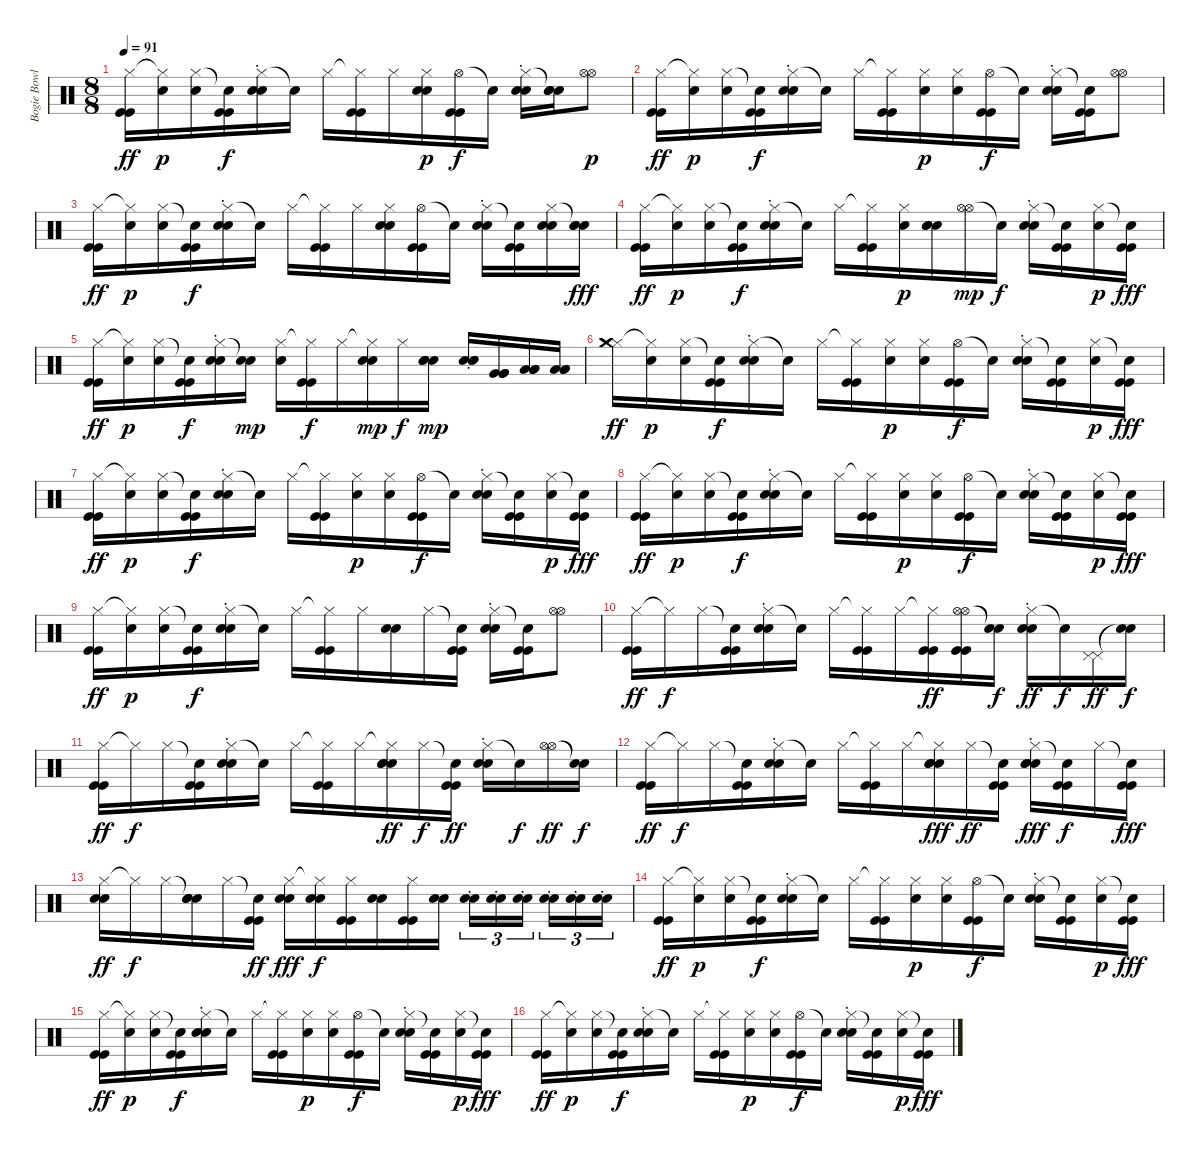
\track ("Bogie Bowles Drums" "Bogie Bowl") {instrument percussion}
\staff {score}
\articulation defaults
\ts (8 8)
\tempo 91
\clef neutral
\ks c
("Hi-Hat (closed)" "Kick (hit)" "Kick (hit)").16{dy ff} ("Hi-Hat (closed)"{t} "Snare (hit) 2").16{dy p} ("Hi-Hat (closed)" "Snare (hit) 2").16 ("Snare (hit)"{t} "Kick (hit)" "Kick (hit)").16{dy f} ("Hi-Hat (closed)" "Snare (hit) 2"{st} "Snare (hit) 2").16 "Snare (hit)"{t}.16 "Hi-Hat (closed)".16 ("Hi-Hat (closed)"{t} "Kick (hit)" "Kick (hit)").16 "Hi-Hat (closed)".16 ("Hi-Hat (closed)" "Snare (hit) 2" "Snare (hit) 2").16{dy p} ("Hi-Hat (open)" "Kick (hit)" "Kick (hit)").16{dy f} "Snare (hit)"{t}.16 ("Hi-Hat (closed)" "Snare (hit) 2"{st} "Snare (hit) 2").16 ("Snare (hit)"{t} "Snare (hit) 2" "Snare (hit) 2").16 ("Hi-Hat (open)" "Hi-Hat (open)").8{dy p} |
("Hi-Hat (closed)" "Kick (hit)" "Kick (hit)").16{dy ff} ("Hi-Hat (closed)"{t} "Snare (hit) 2").16{dy p} ("Hi-Hat (closed)" "Snare (hit) 2").16 ("Snare (hit)"{t} "Kick (hit)" "Kick (hit)").16{dy f} ("Hi-Hat (closed)" "Snare (hit) 2"{st} "Snare (hit) 2").16 "Snare (hit)"{t}.16 "Hi-Hat (closed)".16 ("Hi-Hat (closed)"{t} "Kick (hit)" "Kick (hit)").16 ("Hi-Hat (closed)" "Snare (hit) 2").16{dy p} ("Hi-Hat (closed)" "Snare (hit) 2").16 ("Hi-Hat (open)" "Kick (hit)" "Kick (hit)").16{dy f} "Snare (hit)"{t}.16 ("Hi-Hat (closed)" "Snare (hit) 2"{st} "Snare (hit) 2").16 ("Snare (hit)"{t} "Kick (hit)" "Kick (hit)").16 ("Hi-Hat (open)" "Hi-Hat (open)").8 |
("Hi-Hat (closed)" "Kick (hit)" "Kick (hit)").16{dy ff} ("Hi-Hat (closed)"{t} "Snare (hit) 2").16{dy p} ("Hi-Hat (closed)" "Snare (hit) 2").16 ("Snare (hit)"{t} "Kick (hit)" "Kick (hit)").16{dy f} ("Hi-Hat (closed)" "Snare (hit) 2"{st} "Snare (hit) 2").16 "Snare (hit)"{t}.16 "Hi-Hat (closed)".16 ("Hi-Hat (closed)"{t} "Kick (hit)" "Kick (hit)").16 "Hi-Hat (closed)".16 ("Hi-Hat (closed)" "Snare (hit) 2" "Snare (hit) 2").16 ("Hi-Hat (open)" "Kick (hit)" "Kick (hit)").16 "Snare (hit)"{t}.16 ("Hi-Hat (closed)" "Snare (hit) 2"{st} "Snare (hit) 2").16 ("Snare (hit)"{t} "Kick (hit)" "Kick (hit)").16 ("Hi-Hat (closed)" "Snare (hit) 2" "Snare (hit) 2").16 ("Snare (hit)"{t} "Snare (hit) 2" "Snare (hit) 2").16{dy fff} |
("Hi-Hat (closed)" "Kick (hit)" "Kick (hit)").16{dy ff} ("Hi-Hat (closed)"{t} "Snare (hit) 2").16{dy p} ("Hi-Hat (closed)" "Snare (hit) 2").16 ("Snare (hit)"{t} "Kick (hit)" "Kick (hit)").16{dy f} ("Hi-Hat (closed)" "Snare (hit) 2"{st} "Snare (hit) 2").16 "Snare (hit)"{t}.16 "Hi-Hat (closed)".16 ("Hi-Hat (closed)"{t} "Kick (hit)" "Kick (hit)").16 ("Hi-Hat (closed)" "Snare (hit) 2").16{dy p} ("Snare (hit) 2" "Snare (hit) 2" "Snare (hit) 2").16 ("Hi-Hat (open)" "Hi-Hat (open)").16{dy mp} "Snare (hit)"{t}.16{dy f} ("Hi-Hat (closed)" "Snare (hit) 2"{st} "Snare (hit) 2").16 ("Snare (hit)"{t} "Kick (hit)" "Kick (hit)").16 ("Hi-Hat (closed)" "Snare (hit) 2").16{dy p} ("Snare (hit)"{t} "Kick (hit)" "Kick (hit)").16{dy fff} |
("Hi-Hat (closed)" "Kick (hit)" "Kick (hit)").16{dy ff} ("Hi-Hat (closed)"{t} "Snare (hit) 2").16{dy p} ("Hi-Hat (closed)" "Snare (hit) 2").16 ("Snare (hit)"{t} "Kick (hit)" "Kick (hit)").16{dy f} ("Hi-Hat (closed)" "Snare (hit) 2"{st} "Snare (hit) 2").16 ("Snare (hit)"{t} "Snare (hit) 2").16{dy mp} ("Hi-Hat (closed)" "Snare (hit) 2").16 ("Hi-Hat (closed)"{t} "Kick (hit)" "Kick (hit)").16{dy f} "Hi-Hat (closed)".16 ("Hi-Hat (closed)"{t} "Snare (hit) 2" "Snare (hit) 2").16{dy mp} "Hi-Hat (closed)".16{dy f} ("Snare (hit) 2" "Snare (hit) 2" "Snare (hit) 2").16{dy mp} ("Snare (hit) 2"{st} "Snare (hit) 2" "Snare (hit) 2").16 ("Very Low Tom (hit)" "Very Low Tom (hit)" "Very Low Tom (hit)").16 ("Low Floor Tom (hit)" "Low Floor Tom (hit)" "Low Floor Tom (hit)").16 ("Low Floor Tom (hit)" "Low Floor Tom (hit)" "Low Floor Tom (hit)").16 |
("Hi-Hat (closed)" "Crash medium (hit)" "Crash medium (hit)").16{dy ff} ("Hi-Hat (closed)"{t} "Snare (hit) 2").16{dy p} ("Hi-Hat (closed)" "Snare (hit) 2").16 ("Snare (hit)"{t} "Kick (hit)" "Kick (hit)").16{dy f} ("Hi-Hat (closed)" "Snare (hit) 2"{st} "Snare (hit) 2").16 "Snare (hit)"{t}.16 "Hi-Hat (closed)".16 ("Hi-Hat (closed)"{t} "Kick (hit)" "Kick (hit)").16 ("Hi-Hat (closed)" "Snare (hit) 2").16{dy p} ("Hi-Hat (closed)" "Snare (hit) 2").16 ("Hi-Hat (open)" "Kick (hit)" "Kick (hit)").16{dy f} "Snare (hit)"{t}.16 ("Hi-Hat (closed)" "Snare (hit) 2"{st} "Snare (hit) 2").16 ("Snare (hit)"{t} "Kick (hit)" "Kick (hit)").16 ("Hi-Hat (closed)" "Snare (hit) 2").16{dy p} ("Snare (hit)"{t} "Kick (hit)" "Kick (hit)").16{dy fff} |
("Hi-Hat (closed)" "Kick (hit)" "Kick (hit)").16{dy ff} ("Hi-Hat (closed)"{t} "Snare (hit) 2").16{dy p} ("Hi-Hat (closed)" "Snare (hit) 2").16 ("Snare (hit)"{t} "Kick (hit)" "Kick (hit)").16{dy f} ("Hi-Hat (closed)" "Snare (hit) 2"{st} "Snare (hit) 2").16 "Snare (hit)"{t}.16 "Hi-Hat (closed)".16 ("Hi-Hat (closed)"{t} "Kick (hit)" "Kick (hit)").16 ("Hi-Hat (closed)" "Snare (hit) 2").16{dy p} ("Hi-Hat (closed)" "Snare (hit) 2").16 ("Hi-Hat (open)" "Kick (hit)" "Kick (hit)").16{dy f} "Snare (hit)"{t}.16 ("Hi-Hat (closed)" "Snare (hit) 2"{st} "Snare (hit) 2").16 ("Snare (hit)"{t} "Kick (hit)" "Kick (hit)").16 ("Hi-Hat (closed)" "Snare (hit) 2").16{dy p} ("Snare (hit)"{t} "Kick (hit)" "Kick (hit)").16{dy fff} |
("Hi-Hat (closed)" "Kick (hit)" "Kick (hit)").16{dy ff} ("Hi-Hat (closed)"{t} "Snare (hit) 2").16{dy p} ("Hi-Hat (closed)" "Snare (hit) 2").16 ("Snare (hit)"{t} "Kick (hit)" "Kick (hit)").16{dy f} ("Hi-Hat (closed)" "Snare (hit) 2"{st} "Snare (hit) 2").16 "Snare (hit)"{t}.16 "Hi-Hat (closed)".16 ("Hi-Hat (closed)"{t} "Kick (hit)" "Kick (hit)").16 ("Hi-Hat (closed)" "Snare (hit) 2").16{dy p} ("Hi-Hat (closed)" "Snare (hit) 2").16 ("Hi-Hat (open)" "Kick (hit)" "Kick (hit)").16{dy f} "Snare (hit)"{t}.16 ("Hi-Hat (closed)" "Snare (hit) 2"{st} "Snare (hit) 2").16 ("Snare (hit)"{t} "Kick (hit)" "Kick (hit)").16 ("Hi-Hat (closed)" "Snare (hit) 2").16{dy p} ("Snare (hit)"{t} "Kick (hit)" "Kick (hit)").16{dy fff} |
("Hi-Hat (closed)" "Kick (hit)" "Kick (hit)").16{dy ff} ("Hi-Hat (closed)"{t} "Snare (hit) 2").16{dy p} ("Hi-Hat (closed)" "Snare (hit) 2").16 ("Snare (hit)"{t} "Kick (hit)" "Kick (hit)").16{dy f} ("Hi-Hat (closed)" "Snare (hit) 2"{st} "Snare (hit) 2").16 "Snare (hit)"{t}.16 "Hi-Hat (closed)".16 ("Hi-Hat (closed)"{t} "Kick (hit)" "Kick (hit)").16 "Hi-Hat (closed)".16 ("Snare (hit) 2" "Snare (hit) 2").16 "Hi-Hat (closed)".16 ("Snare (hit)"{t} "Kick (hit)" "Kick (hit)").16 ("Hi-Hat (closed)" "Snare (hit) 2"{st} "Snare (hit) 2").16 ("Snare (hit)"{t} "Kick (hit)" "Kick (hit)").16 ("Hi-Hat (open)" "Hi-Hat (open)").8 |
("Hi-Hat (closed)" "Kick (hit)" "Kick (hit)").16{dy ff} "Hi-Hat (closed)"{t}.16{dy f} "Hi-Hat (closed)".16 ("Snare (hit)"{t} "Kick (hit)" "Kick (hit)").16 ("Hi-Hat (closed)" "Snare (hit) 2"{st} "Snare (hit) 2").16 "Snare (hit)"{t}.16 "Hi-Hat (closed)".16 ("Hi-Hat (closed)"{t} "Kick (hit)" "Kick (hit)").16 "Hi-Hat (closed)".16 ("Hi-Hat (closed)"{t} "Kick (hit)" "Kick (hit)").16{dy ff} ("Hi-Hat (open)" "Hi-Hat (open)" "Kick (hit)" "Kick (hit)").16 ("Snare (hit)"{t} "Snare (hit)"{t}).16{dy f} ("Hi-Hat (closed)" "Snare (hit) 2"{st} "Snare (hit) 2").16{dy ff} "Snare (hit)"{t}.16{dy f} ("Pedal Hi-Hat (hit)" "Pedal Hi-Hat (hit)").16{dy ff} ("Snare (hit)"{t} "Snare (hit)"{t}).16{dy f} |
("Hi-Hat (closed)" "Kick (hit)" "Kick (hit)").16{dy ff} "Hi-Hat (closed)"{t}.16{dy f} "Hi-Hat (closed)".16 ("Snare (hit)"{t} "Kick (hit)" "Kick (hit)").16 ("Hi-Hat (closed)" "Snare (hit) 2"{st} "Snare (hit) 2").16 "Snare (hit)"{t}.16 "Hi-Hat (closed)".16 ("Hi-Hat (closed)"{t} "Kick (hit)" "Kick (hit)").16 "Hi-Hat (closed)".16 ("Hi-Hat (closed)"{t} "Snare (hit) 2" "Snare (hit) 2" "Snare (hit) 2").16{dy ff} "Hi-Hat (closed)".16{dy f} ("Snare (hit)"{t} "Kick (hit)" "Kick (hit)").16{dy ff} ("Hi-Hat (closed)" "Snare (hit) 2"{st} "Snare (hit) 2").16 "Snare (hit)"{t}.16{dy f} ("Hi-Hat (open)" "Hi-Hat (open)").16{dy ff} ("Snare (hit)"{t} "Snare (hit)"{t}).16{dy f} |
("Hi-Hat (closed)" "Kick (hit)" "Kick (hit)").16{dy ff} "Hi-Hat (closed)"{t}.16{dy f} "Hi-Hat (closed)".16 ("Snare (hit)"{t} "Kick (hit)" "Kick (hit)").16 ("Hi-Hat (closed)" "Snare (hit) 2"{st} "Snare (hit) 2").16 "Snare (hit)"{t}.16 "Hi-Hat (closed)".16 ("Hi-Hat (closed)"{t} "Kick (hit)" "Kick (hit)").16 "Hi-Hat (closed)".16 ("Hi-Hat (closed)"{t} "Snare (hit) 2" "Snare (hit) 2" "Snare (hit) 2").16{dy fff} "Hi-Hat (closed)".16{dy ff} ("Snare (hit)"{t} "Kick (hit)" "Kick (hit)").16 ("Hi-Hat (closed)" "Snare (hit) 2"{st} "Snare (hit) 2" "Snare (hit) 2").16{dy fff} ("Snare (hit)"{t} "Kick (hit)" "Kick (hit)").16{dy f} "Hi-Hat (closed)".16 ("Snare (hit)"{t} "Kick (hit)" "Kick (hit)").16{dy fff} |
("Hi-Hat (closed)" "Snare (hit) 2" "Snare (hit) 2").16{dy ff} "Hi-Hat (closed)"{t}.16{dy f} "Hi-Hat (closed)".16 ("Snare (hit)"{t} "Snare (hit) 2" "Snare (hit) 2").16 "Hi-Hat (closed)".16 ("Snare (hit)"{t} "Kick (hit)" "Kick (hit)").16{dy ff} ("Hi-Hat (closed)" "Snare (hit) 2" "Snare (hit) 2").16{dy fff} ("Hi-Hat (closed)"{t} "Snare (hit) 2" "Snare (hit) 2").16{dy f} ("Hi-Hat (closed)" "Kick (hit)" "Kick (hit)").16 ("Snare (hit) 2" "Snare (hit) 2").16 ("Hi-Hat (closed)" "Kick (hit)" "Kick (hit)").16 ("Snare (hit) 2" "Snare (hit) 2").16 ("Snare (hit) 2"{st} "Snare (hit) 2").16{tu (3 2)} ("Snare (hit) 2"{st} "Snare (hit) 2").16{tu (3 2)} ("Snare (hit) 2"{st} "Snare (hit) 2").16{tu (3 2)} ("Snare (hit) 2"{st} "Snare (hit) 2").16{tu (3 2)} ("Snare (hit) 2"{st} "Snare (hit) 2").16{tu (3 2)} ("Snare (hit) 2"{st} "Snare (hit) 2").16{tu (3 2)} |
("Hi-Hat (closed)" "Kick (hit)" "Kick (hit)").16{dy ff} ("Hi-Hat (closed)"{t} "Snare (hit) 2").16{dy p} ("Hi-Hat (closed)" "Snare (hit) 2").16 ("Snare (hit)"{t} "Kick (hit)" "Kick (hit)").16{dy f} ("Hi-Hat (closed)" "Snare (hit) 2"{st} "Snare (hit) 2").16 "Snare (hit)"{t}.16 "Hi-Hat (closed)".16 ("Hi-Hat (closed)"{t} "Kick (hit)" "Kick (hit)").16 ("Hi-Hat (closed)" "Snare (hit) 2").16{dy p} ("Hi-Hat (closed)" "Snare (hit) 2").16 ("Hi-Hat (open)" "Kick (hit)" "Kick (hit)").16{dy f} "Snare (hit)"{t}.16 ("Hi-Hat (closed)" "Snare (hit) 2"{st} "Snare (hit) 2").16 ("Snare (hit)"{t} "Kick (hit)" "Kick (hit)").16 ("Hi-Hat (closed)" "Snare (hit) 2").16{dy p} ("Snare (hit)"{t} "Kick (hit)" "Kick (hit)").16{dy fff} |
("Hi-Hat (closed)" "Kick (hit)" "Kick (hit)").16{dy ff} ("Hi-Hat (closed)"{t} "Snare (hit) 2").16{dy p} ("Hi-Hat (closed)" "Snare (hit) 2").16 ("Snare (hit)"{t} "Kick (hit)" "Kick (hit)").16{dy f} ("Hi-Hat (closed)" "Snare (hit) 2"{st} "Snare (hit) 2").16 "Snare (hit)"{t}.16 "Hi-Hat (closed)".16 ("Hi-Hat (closed)"{t} "Kick (hit)" "Kick (hit)").16 ("Hi-Hat (closed)" "Snare (hit) 2").16{dy p} ("Hi-Hat (closed)" "Snare (hit) 2").16 ("Hi-Hat (open)" "Kick (hit)" "Kick (hit)").16{dy f} "Snare (hit)"{t}.16 ("Hi-Hat (closed)" "Snare (hit) 2"{st} "Snare (hit) 2").16 ("Snare (hit)"{t} "Kick (hit)" "Kick (hit)").16 ("Hi-Hat (closed)" "Snare (hit) 2").16{dy p} ("Snare (hit)"{t} "Kick (hit)" "Kick (hit)").16{dy fff} |
("Hi-Hat (closed)" "Kick (hit)" "Kick (hit)").16{dy ff} ("Hi-Hat (closed)"{t} "Snare (hit) 2").16{dy p} ("Hi-Hat (closed)" "Snare (hit) 2").16 ("Snare (hit)"{t} "Kick (hit)" "Kick (hit)").16{dy f} ("Hi-Hat (closed)" "Snare (hit) 2"{st} "Snare (hit) 2").16 "Snare (hit)"{t}.16 "Hi-Hat (closed)".16 ("Hi-Hat (closed)"{t} "Kick (hit)" "Kick (hit)").16 ("Hi-Hat (closed)" "Snare (hit) 2").16{dy p} ("Hi-Hat (closed)" "Snare (hit) 2").16 ("Hi-Hat (open)" "Kick (hit)" "Kick (hit)").16{dy f} "Snare (hit)"{t}.16 ("Hi-Hat (closed)" "Snare (hit) 2"{st} "Snare (hit) 2").16 ("Snare (hit)"{t} "Kick (hit)" "Kick (hit)").16 ("Hi-Hat (closed)" "Snare (hit) 2").16{dy p} ("Snare (hit)"{t} "Kick (hit)" "Kick (hit)").16{dy fff}
